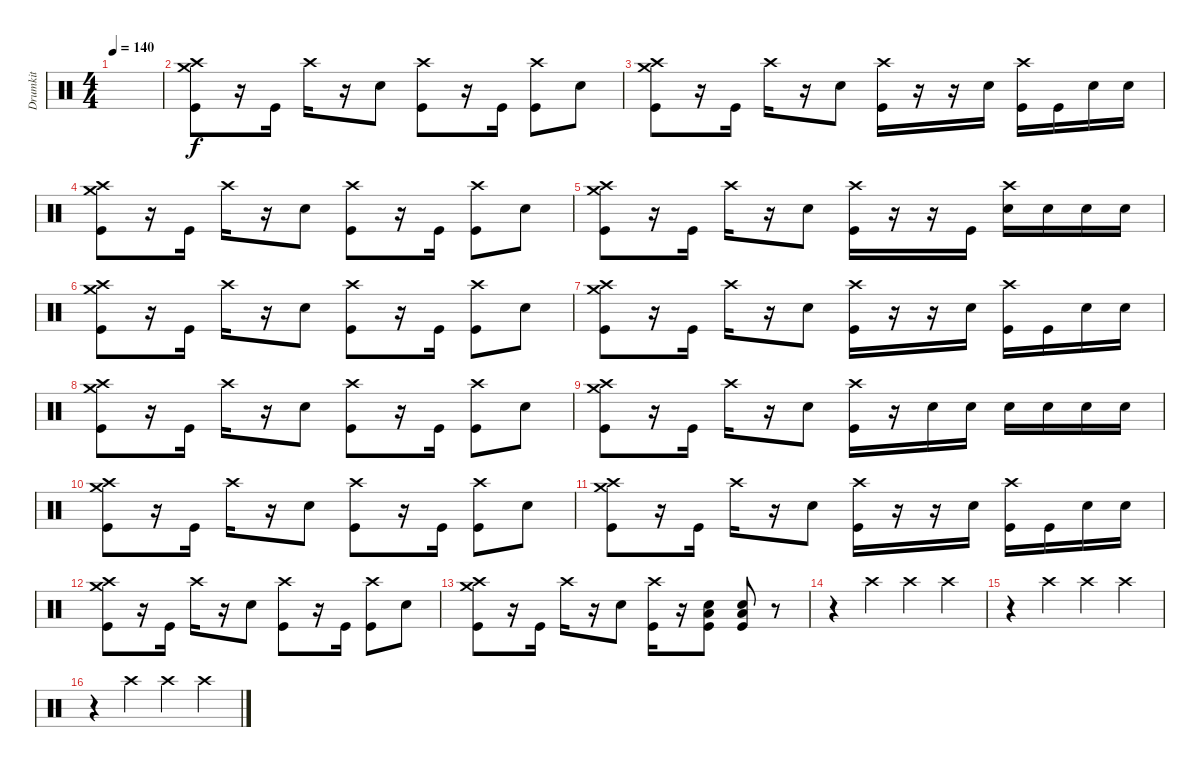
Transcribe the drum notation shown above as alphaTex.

\track ("Drumkit" "Drumkit") {instrument percussion}
\staff {score}
\articulation defaults
\ts (4 4)
\tempo 140
\clef neutral
\ks c
|
("Crash high (hit)" "Crash medium (hit)" "Kick (hit)").8 r.16 "Kick (hit)".16 "Crash high (hit)".16 r.16 "Snare (hit) 2".8 ("Kick (hit)" "Crash high (hit)").8 r.16 "Kick (hit)".16 ("Kick (hit)" "Crash high (hit)").8 "Snare (hit) 2".8 |
("Crash high (hit)" "Crash medium (hit)" "Kick (hit)").8 r.16 "Kick (hit)".16 "Crash high (hit)".16 r.16 "Snare (hit) 2".8 ("Kick (hit)" "Crash high (hit)").16 r.16 r.16 "Snare (hit) 2".16 ("Kick (hit)" "Crash high (hit)").16 "Kick (hit)".16 "Snare (hit) 2".16 "Snare (hit) 2".16 |
("Crash high (hit)" "Crash medium (hit)" "Kick (hit)").8 r.16 "Kick (hit)".16 "Crash high (hit)".16 r.16 "Snare (hit) 2".8 ("Kick (hit)" "Crash high (hit)").8 r.16 "Kick (hit)".16 ("Kick (hit)" "Crash high (hit)").8 "Snare (hit) 2".8 |
("Crash high (hit)" "Crash medium (hit)" "Kick (hit)").8 r.16 "Kick (hit)".16 "Crash high (hit)".16 r.16 "Snare (hit) 2".8 ("Kick (hit)" "Crash high (hit)").16 r.16 r.16 "Kick (hit)".16 ("Crash high (hit)" "Snare (hit) 2").16 "Snare (hit) 2".16 "Snare (hit) 2".16 "Snare (hit) 2".16 |
("Crash high (hit)" "Crash medium (hit)" "Kick (hit)").8 r.16 "Kick (hit)".16 "Crash high (hit)".16 r.16 "Snare (hit) 2".8 ("Kick (hit)" "Crash high (hit)").8 r.16 "Kick (hit)".16 ("Kick (hit)" "Crash high (hit)").8 "Snare (hit) 2".8 |
("Crash high (hit)" "Crash medium (hit)" "Kick (hit)").8 r.16 "Kick (hit)".16 "Crash high (hit)".16 r.16 "Snare (hit) 2".8 ("Kick (hit)" "Crash high (hit)").16 r.16 r.16 "Snare (hit) 2".16 ("Kick (hit)" "Crash high (hit)").16 "Kick (hit)".16 "Snare (hit) 2".16 "Snare (hit) 2".16 |
("Crash high (hit)" "Crash medium (hit)" "Kick (hit)").8 r.16 "Kick (hit)".16 "Crash high (hit)".16 r.16 "Snare (hit) 2".8 ("Kick (hit)" "Crash high (hit)").8 r.16 "Kick (hit)".16 ("Kick (hit)" "Crash high (hit)").8 "Snare (hit) 2".8 |
("Crash high (hit)" "Crash medium (hit)" "Kick (hit)").8 r.16 "Kick (hit)".16 "Crash high (hit)".16 r.16 "Snare (hit) 2".8 ("Kick (hit)" "Crash high (hit)").16 r.16 "Snare (hit) 2".16 "Snare (hit) 2".16 "Snare (hit) 2".16 "Snare (hit) 2".16 "Snare (hit) 2".16 "Snare (hit) 2".16 |
("Crash high (hit)" "Crash medium (hit)" "Kick (hit)").8 r.16 "Kick (hit)".16 "Crash high (hit)".16 r.16 "Snare (hit) 2".8 ("Kick (hit)" "Crash high (hit)").8 r.16 "Kick (hit)".16 ("Kick (hit)" "Crash high (hit)").8 "Snare (hit) 2".8 |
("Crash high (hit)" "Crash medium (hit)" "Kick (hit)").8 r.16 "Kick (hit)".16 "Crash high (hit)".16 r.16 "Snare (hit) 2".8 ("Kick (hit)" "Crash high (hit)").16 r.16 r.16 "Snare (hit) 2".16 ("Kick (hit)" "Crash high (hit)").16 "Kick (hit)".16 "Snare (hit) 2".16 "Snare (hit) 2".16 |
("Crash high (hit)" "Crash medium (hit)" "Kick (hit)").8 r.16 "Kick (hit)".16 "Crash high (hit)".16 r.16 "Snare (hit) 2".8 ("Kick (hit)" "Crash high (hit)").8 r.16 "Kick (hit)".16 ("Kick (hit)" "Crash high (hit)").8 "Snare (hit) 2".8 |
("Crash high (hit)" "Crash medium (hit)" "Kick (hit)").8 r.16 "Kick (hit)".16 "Crash high (hit)".16 r.16 "Snare (hit) 2".8 ("Kick (hit)" "Crash high (hit)").16 r.16 ("Snare (hit) 2" "Low Tom (hit)" "Kick (hit)").8 ("Kick (hit)" "Low Tom (hit)" "Snare (hit) 2").8 r.8 |
r.4 "Crash high (hit)".4 "Crash high (hit)".4 "Crash high (hit)".4 |
r.4 "Crash high (hit)".4 "Crash high (hit)".4 "Crash high (hit)".4 |
r.4 "Crash high (hit)".4 "Crash high (hit)".4 "Crash high (hit)".4
